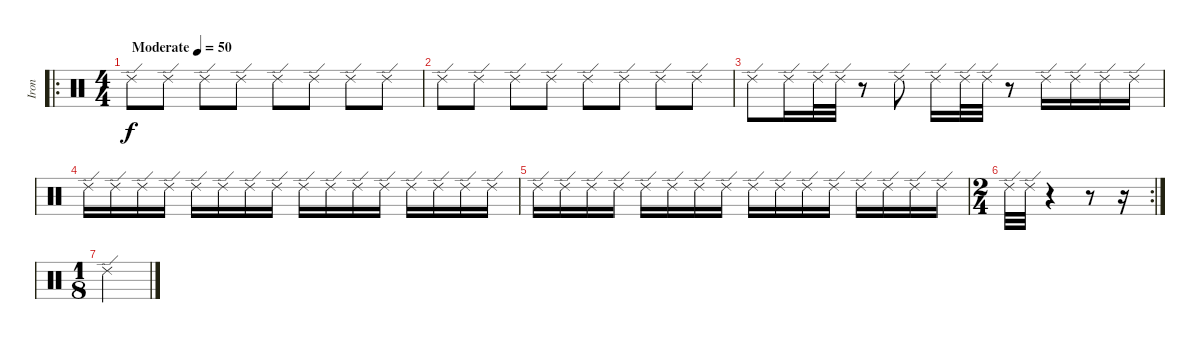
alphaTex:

\track ("Iron" "Iron") {instrument percussion}
\staff
\articulation defaults
\ro
\ts (4 4)
\tempo (50 "Moderate")
\clef neutral
\ks c "Ride (edge) 2".8{dy f} "Ride (edge) 2".8 "Ride (edge) 2".8 "Ride (edge) 2".8 "Ride (edge) 2".8 "Ride (edge) 2".8 "Ride (edge) 2".8 "Ride (edge) 2".8
|
"Ride (edge) 2".8 "Ride (edge) 2".8 "Ride (edge) 2".8 "Ride (edge) 2".8 "Ride (edge) 2".8 "Ride (edge) 2".8 "Ride (edge) 2".8 "Ride (edge) 2".8 |
"Ride (edge) 2".8 "Ride (edge) 2".16 "Ride (edge) 2".32 "Ride (edge) 2".32 r.8 "Ride (edge) 2".8 "Ride (edge) 2".16 "Ride (edge) 2".32 "Ride (edge) 2".32 r.8 "Ride (edge) 2".16 "Ride (edge) 2".16 "Ride (edge) 2".16 "Ride (edge) 2".16 |
"Ride (edge) 2".16 "Ride (edge) 2".16 "Ride (edge) 2".16 "Ride (edge) 2".16 "Ride (edge) 2".16 "Ride (edge) 2".16 "Ride (edge) 2".16 "Ride (edge) 2".16 "Ride (edge) 2".16 "Ride (edge) 2".16 "Ride (edge) 2".16 "Ride (edge) 2".16 "Ride (edge) 2".16 "Ride (edge) 2".16 "Ride (edge) 2".16 "Ride (edge) 2".16 |
"Ride (edge) 2".16 "Ride (edge) 2".16 "Ride (edge) 2".16 "Ride (edge) 2".16 "Ride (edge) 2".16 "Ride (edge) 2".16 "Ride (edge) 2".16 "Ride (edge) 2".16 "Ride (edge) 2".16 "Ride (edge) 2".16 "Ride (edge) 2".16 "Ride (edge) 2".16 "Ride (edge) 2".16 "Ride (edge) 2".16 "Ride (edge) 2".16 "Ride (edge) 2".16 |
\rc 2
\ts (2 4)
"Ride (edge) 2".32 "Ride (edge) 2".32 r.4 r.8 r.16 |
\ts (1 8)
"Ride (edge) 2".2
